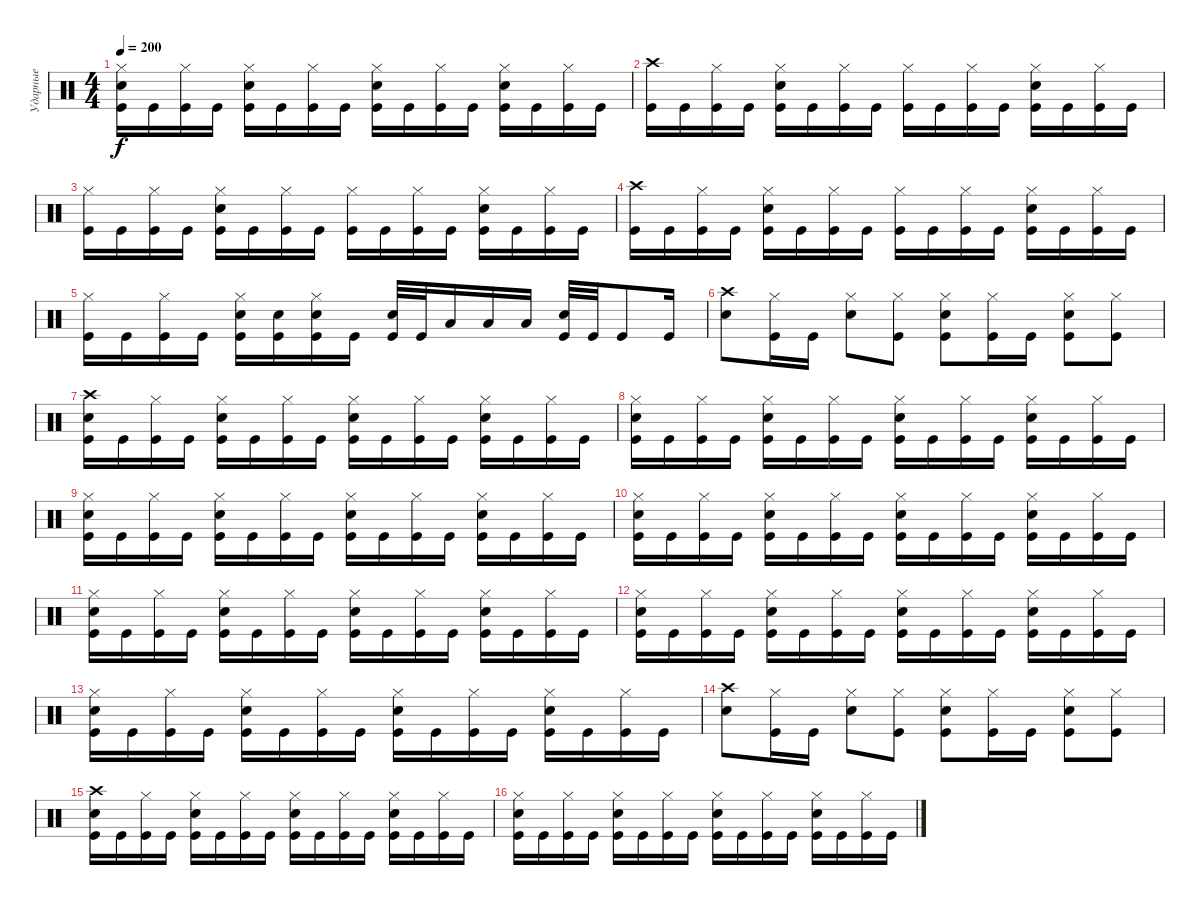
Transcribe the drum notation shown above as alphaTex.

\track ("Ударные" "Ударные") {instrument percussion}
\staff {score}
\articulation defaults
\ts (4 4)
\tempo 200
\clef neutral
\ks c
("Hi-Hat (closed)" "Electric Snare (hit)" "Kick (hit)").16{dy f} "Kick (hit)".16 ("Hi-Hat (closed)" "Kick (hit)").16 "Kick (hit)".16 ("Hi-Hat (closed)" "Electric Snare (hit)" "Kick (hit)").16 "Kick (hit)".16 ("Hi-Hat (closed)" "Kick (hit)").16 "Kick (hit)".16 ("Hi-Hat (closed)" "Electric Snare (hit)" "Kick (hit)").16 "Kick (hit)".16 ("Hi-Hat (closed)" "Kick (hit)").16 "Kick (hit)".16 ("Hi-Hat (closed)" "Electric Snare (hit)" "Kick (hit)").16 "Kick (hit)".16 ("Hi-Hat (closed)" "Kick (hit)").16 "Kick (hit)".16 |
("Crash high (hit)" "Kick (hit)").16 "Kick (hit)".16 ("Hi-Hat (closed)" "Kick (hit)").16 "Kick (hit)".16 ("Hi-Hat (closed)" "Electric Snare (hit)" "Kick (hit)").16 "Kick (hit)".16 ("Hi-Hat (closed)" "Kick (hit)").16 "Kick (hit)".16 ("Hi-Hat (closed)" "Kick (hit)").16 "Kick (hit)".16 ("Hi-Hat (closed)" "Kick (hit)").16 "Kick (hit)".16 ("Hi-Hat (closed)" "Electric Snare (hit)" "Kick (hit)").16 "Kick (hit)".16 ("Hi-Hat (closed)" "Kick (hit)").16 "Kick (hit)".16 |
("Hi-Hat (closed)" "Kick (hit)").16 "Kick (hit)".16 ("Hi-Hat (closed)" "Kick (hit)").16 "Kick (hit)".16 ("Hi-Hat (closed)" "Electric Snare (hit)" "Kick (hit)").16 "Kick (hit)".16 ("Hi-Hat (closed)" "Kick (hit)").16 "Kick (hit)".16 ("Hi-Hat (closed)" "Kick (hit)").16 "Kick (hit)".16 ("Hi-Hat (closed)" "Kick (hit)").16 "Kick (hit)".16 ("Hi-Hat (closed)" "Electric Snare (hit)" "Kick (hit)").16 "Kick (hit)".16 ("Hi-Hat (closed)" "Kick (hit)").16 "Kick (hit)".16 |
("Crash high (hit)" "Kick (hit)").16 "Kick (hit)".16 ("Hi-Hat (closed)" "Kick (hit)").16 "Kick (hit)".16 ("Hi-Hat (closed)" "Electric Snare (hit)" "Kick (hit)").16 "Kick (hit)".16 ("Hi-Hat (closed)" "Kick (hit)").16 "Kick (hit)".16 ("Hi-Hat (closed)" "Kick (hit)").16 "Kick (hit)".16 ("Hi-Hat (closed)" "Kick (hit)").16 "Kick (hit)".16 ("Hi-Hat (closed)" "Electric Snare (hit)" "Kick (hit)").16 "Kick (hit)".16 ("Hi-Hat (closed)" "Kick (hit)").16 "Kick (hit)".16 |
("Hi-Hat (closed)" "Kick (hit)").16 "Kick (hit)".16 ("Hi-Hat (closed)" "Kick (hit)").16 "Kick (hit)".16 ("Hi-Hat (closed)" "Electric Snare (hit)" "Kick (hit)").16 ("Electric Snare (hit)" "Kick (hit)").16 ("Hi-Hat (closed)" "Electric Snare (hit)" "Kick (hit)").16 "Kick (hit)".16 ("Electric Snare (hit)" "Kick (hit)").32 "Kick (hit)".32 "Low Tom (hit)".16 "Low Tom (hit)".16 "Low Tom (hit)".16 ("Electric Snare (hit)" "Kick (hit)").32 "Kick (hit)".32 "Kick (hit)".8 "Kick (hit)".16 |
("Crash high (hit)" "Electric Snare (hit)").8 ("Hi-Hat (closed)" "Kick (hit)").16 "Kick (hit)".16 ("Hi-Hat (closed)" "Electric Snare (hit)").8 ("Hi-Hat (closed)" "Kick (hit)").8 ("Hi-Hat (closed)" "Electric Snare (hit)" "Kick (hit)").8 ("Hi-Hat (closed)" "Kick (hit)").16 "Kick (hit)".16 ("Hi-Hat (closed)" "Electric Snare (hit)" "Kick (hit)").8 ("Hi-Hat (closed)" "Kick (hit)").8 |
("Crash high (hit)" "Electric Snare (hit)" "Kick (hit)").16 "Kick (hit)".16 ("Hi-Hat (closed)" "Kick (hit)").16 "Kick (hit)".16 ("Hi-Hat (closed)" "Electric Snare (hit)" "Kick (hit)").16 "Kick (hit)".16 ("Hi-Hat (closed)" "Kick (hit)").16 "Kick (hit)".16 ("Hi-Hat (closed)" "Electric Snare (hit)" "Kick (hit)").16 "Kick (hit)".16 ("Hi-Hat (closed)" "Kick (hit)").16 "Kick (hit)".16 ("Hi-Hat (closed)" "Electric Snare (hit)" "Kick (hit)").16 "Kick (hit)".16 ("Hi-Hat (closed)" "Kick (hit)").16 "Kick (hit)".16 |
("Hi-Hat (closed)" "Electric Snare (hit)" "Kick (hit)").16 "Kick (hit)".16 ("Hi-Hat (closed)" "Kick (hit)").16 "Kick (hit)".16 ("Hi-Hat (closed)" "Electric Snare (hit)" "Kick (hit)").16 "Kick (hit)".16 ("Hi-Hat (closed)" "Kick (hit)").16 "Kick (hit)".16 ("Hi-Hat (closed)" "Electric Snare (hit)" "Kick (hit)").16 "Kick (hit)".16 ("Hi-Hat (closed)" "Kick (hit)").16 "Kick (hit)".16 ("Hi-Hat (closed)" "Electric Snare (hit)" "Kick (hit)").16 "Kick (hit)".16 ("Hi-Hat (closed)" "Kick (hit)").16 "Kick (hit)".16 |
("Hi-Hat (closed)" "Electric Snare (hit)" "Kick (hit)").16 "Kick (hit)".16 ("Hi-Hat (closed)" "Kick (hit)").16 "Kick (hit)".16 ("Hi-Hat (closed)" "Electric Snare (hit)" "Kick (hit)").16 "Kick (hit)".16 ("Hi-Hat (closed)" "Kick (hit)").16 "Kick (hit)".16 ("Hi-Hat (closed)" "Electric Snare (hit)" "Kick (hit)").16 "Kick (hit)".16 ("Hi-Hat (closed)" "Kick (hit)").16 "Kick (hit)".16 ("Hi-Hat (closed)" "Electric Snare (hit)" "Kick (hit)").16 "Kick (hit)".16 ("Hi-Hat (closed)" "Kick (hit)").16 "Kick (hit)".16 |
("Hi-Hat (closed)" "Electric Snare (hit)" "Kick (hit)").16 "Kick (hit)".16 ("Hi-Hat (closed)" "Kick (hit)").16 "Kick (hit)".16 ("Hi-Hat (closed)" "Electric Snare (hit)" "Kick (hit)").16 "Kick (hit)".16 ("Hi-Hat (closed)" "Kick (hit)").16 "Kick (hit)".16 ("Hi-Hat (closed)" "Electric Snare (hit)" "Kick (hit)").16 "Kick (hit)".16 ("Hi-Hat (closed)" "Kick (hit)").16 "Kick (hit)".16 ("Hi-Hat (closed)" "Electric Snare (hit)" "Kick (hit)").16 "Kick (hit)".16 ("Hi-Hat (closed)" "Kick (hit)").16 "Kick (hit)".16 |
("Hi-Hat (closed)" "Electric Snare (hit)" "Kick (hit)").16 "Kick (hit)".16 ("Hi-Hat (closed)" "Kick (hit)").16 "Kick (hit)".16 ("Hi-Hat (closed)" "Electric Snare (hit)" "Kick (hit)").16 "Kick (hit)".16 ("Hi-Hat (closed)" "Kick (hit)").16 "Kick (hit)".16 ("Hi-Hat (closed)" "Electric Snare (hit)" "Kick (hit)").16 "Kick (hit)".16 ("Hi-Hat (closed)" "Kick (hit)").16 "Kick (hit)".16 ("Hi-Hat (closed)" "Electric Snare (hit)" "Kick (hit)").16 "Kick (hit)".16 ("Hi-Hat (closed)" "Kick (hit)").16 "Kick (hit)".16 |
("Hi-Hat (closed)" "Electric Snare (hit)" "Kick (hit)").16 "Kick (hit)".16 ("Hi-Hat (closed)" "Kick (hit)").16 "Kick (hit)".16 ("Hi-Hat (closed)" "Electric Snare (hit)" "Kick (hit)").16 "Kick (hit)".16 ("Hi-Hat (closed)" "Kick (hit)").16 "Kick (hit)".16 ("Hi-Hat (closed)" "Electric Snare (hit)" "Kick (hit)").16 "Kick (hit)".16 ("Hi-Hat (closed)" "Kick (hit)").16 "Kick (hit)".16 ("Hi-Hat (closed)" "Electric Snare (hit)" "Kick (hit)").16 "Kick (hit)".16 ("Hi-Hat (closed)" "Kick (hit)").16 "Kick (hit)".16 |
("Hi-Hat (closed)" "Electric Snare (hit)" "Kick (hit)").16 "Kick (hit)".16 ("Hi-Hat (closed)" "Kick (hit)").16 "Kick (hit)".16 ("Hi-Hat (closed)" "Electric Snare (hit)" "Kick (hit)").16 "Kick (hit)".16 ("Hi-Hat (closed)" "Kick (hit)").16 "Kick (hit)".16 ("Hi-Hat (closed)" "Electric Snare (hit)" "Kick (hit)").16 "Kick (hit)".16 ("Hi-Hat (closed)" "Kick (hit)").16 "Kick (hit)".16 ("Hi-Hat (closed)" "Electric Snare (hit)" "Kick (hit)").16 "Kick (hit)".16 ("Hi-Hat (closed)" "Kick (hit)").16 "Kick (hit)".16 |
("Crash high (hit)" "Electric Snare (hit)").8 ("Hi-Hat (closed)" "Kick (hit)").16 "Kick (hit)".16 ("Hi-Hat (closed)" "Electric Snare (hit)").8 ("Hi-Hat (closed)" "Kick (hit)").8 ("Hi-Hat (closed)" "Electric Snare (hit)" "Kick (hit)").8 ("Hi-Hat (closed)" "Kick (hit)").16 "Kick (hit)".16 ("Hi-Hat (closed)" "Electric Snare (hit)" "Kick (hit)").8 ("Hi-Hat (closed)" "Kick (hit)").8 |
("Crash high (hit)" "Electric Snare (hit)" "Kick (hit)").16 "Kick (hit)".16 ("Hi-Hat (closed)" "Kick (hit)").16 "Kick (hit)".16 ("Hi-Hat (closed)" "Electric Snare (hit)" "Kick (hit)").16 "Kick (hit)".16 ("Hi-Hat (closed)" "Kick (hit)").16 "Kick (hit)".16 ("Hi-Hat (closed)" "Electric Snare (hit)" "Kick (hit)").16 "Kick (hit)".16 ("Hi-Hat (closed)" "Kick (hit)").16 "Kick (hit)".16 ("Hi-Hat (closed)" "Electric Snare (hit)" "Kick (hit)").16 "Kick (hit)".16 ("Hi-Hat (closed)" "Kick (hit)").16 "Kick (hit)".16 |
("Hi-Hat (closed)" "Electric Snare (hit)" "Kick (hit)").16 "Kick (hit)".16 ("Hi-Hat (closed)" "Kick (hit)").16 "Kick (hit)".16 ("Hi-Hat (closed)" "Electric Snare (hit)" "Kick (hit)").16 "Kick (hit)".16 ("Hi-Hat (closed)" "Kick (hit)").16 "Kick (hit)".16 ("Hi-Hat (closed)" "Electric Snare (hit)" "Kick (hit)").16 "Kick (hit)".16 ("Hi-Hat (closed)" "Kick (hit)").16 "Kick (hit)".16 ("Hi-Hat (closed)" "Electric Snare (hit)" "Kick (hit)").16 "Kick (hit)".16 ("Hi-Hat (closed)" "Kick (hit)").16 "Kick (hit)".16
